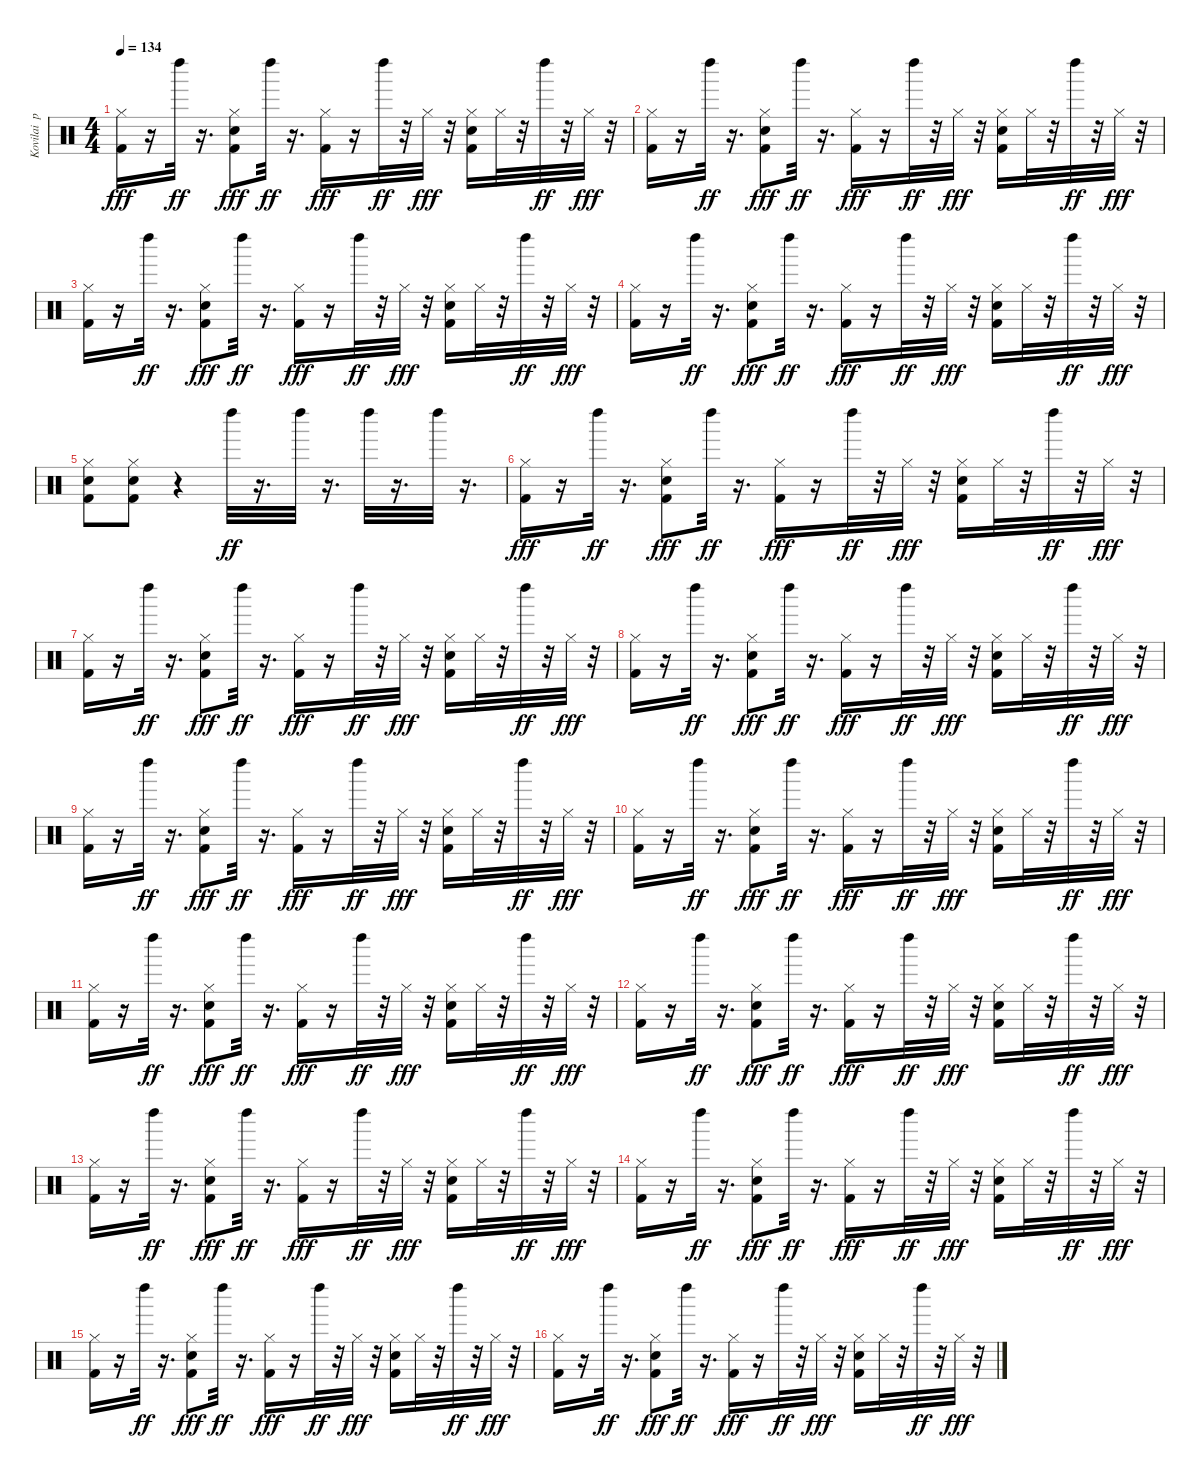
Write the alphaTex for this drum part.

\track ("Kovilai  po tihonechky:" "Kovilai  p") {instrument percussion}
\staff {score}
\articulation defaults
\ts (4 4)
\tempo 134
\clef neutral
\ks c
("Hi-Hat (closed)" "Kick (hit) 2").16{dy fff} r.16 "Left Maraca (hit)".32{dy ff} r.16{d} ("Snare (hit) 2" "Hi-Hat (closed)" "Kick (hit) 2").8{dy fff} "Left Maraca (hit)".32{dy ff} r.16{d} ("Hi-Hat (closed)" "Kick (hit) 2").16{dy fff} r.16 "Left Maraca (hit)".32{dy ff} r.32 "Hi-Hat (closed)".32{dy fff} r.32 ("Hi-Hat (closed)" "Snare (hit) 2" "Kick (hit) 2").16 "Hi-Hat (closed)".32 r.32 "Left Maraca (hit)".32{dy ff} r.32 "Hi-Hat (closed)".32{dy fff} r.32 |
("Hi-Hat (closed)" "Kick (hit) 2").16 r.16 "Left Maraca (hit)".32{dy ff} r.16{d} ("Snare (hit) 2" "Hi-Hat (closed)" "Kick (hit) 2").8{dy fff} "Left Maraca (hit)".32{dy ff} r.16{d} ("Hi-Hat (closed)" "Kick (hit) 2").16{dy fff} r.16 "Left Maraca (hit)".32{dy ff} r.32 "Hi-Hat (closed)".32{dy fff} r.32 ("Hi-Hat (closed)" "Snare (hit) 2" "Kick (hit) 2").16 "Hi-Hat (closed)".32 r.32 "Left Maraca (hit)".32{dy ff} r.32 "Hi-Hat (closed)".32{dy fff} r.32 |
("Hi-Hat (closed)" "Kick (hit) 2").16 r.16 "Left Maraca (hit)".32{dy ff} r.16{d} ("Snare (hit) 2" "Hi-Hat (closed)" "Kick (hit) 2").8{dy fff} "Left Maraca (hit)".32{dy ff} r.16{d} ("Hi-Hat (closed)" "Kick (hit) 2").16{dy fff} r.16 "Left Maraca (hit)".32{dy ff} r.32 "Hi-Hat (closed)".32{dy fff} r.32 ("Hi-Hat (closed)" "Snare (hit) 2" "Kick (hit) 2").16 "Hi-Hat (closed)".32 r.32 "Left Maraca (hit)".32{dy ff} r.32 "Hi-Hat (closed)".32{dy fff} r.32 |
("Hi-Hat (closed)" "Kick (hit) 2").16 r.16 "Left Maraca (hit)".32{dy ff} r.16{d} ("Snare (hit) 2" "Hi-Hat (closed)" "Kick (hit) 2").8{dy fff} "Left Maraca (hit)".32{dy ff} r.16{d} ("Hi-Hat (closed)" "Kick (hit) 2").16{dy fff} r.16 "Left Maraca (hit)".32{dy ff} r.32 "Hi-Hat (closed)".32{dy fff} r.32 ("Hi-Hat (closed)" "Snare (hit) 2" "Kick (hit) 2").16 "Hi-Hat (closed)".32 r.32 "Left Maraca (hit)".32{dy ff} r.32 "Hi-Hat (closed)".32{dy fff} r.32 |
("Snare (hit) 2" "Hi-Hat (closed)" "Kick (hit) 2").8 ("Snare (hit) 2" "Hi-Hat (closed)" "Kick (hit) 2").8 r.4 "Left Maraca (hit)".32{dy ff} r.16{d} "Left Maraca (hit)".32 r.16{d} "Left Maraca (hit)".32 r.16{d} "Left Maraca (hit)".32 r.16{d} |
("Hi-Hat (closed)" "Kick (hit) 2").16{dy fff} r.16 "Left Maraca (hit)".32{dy ff} r.16{d} ("Snare (hit) 2" "Hi-Hat (closed)" "Kick (hit) 2").8{dy fff} "Left Maraca (hit)".32{dy ff} r.16{d} ("Hi-Hat (closed)" "Kick (hit) 2").16{dy fff} r.16 "Left Maraca (hit)".32{dy ff} r.32 "Hi-Hat (closed)".32{dy fff} r.32 ("Hi-Hat (closed)" "Snare (hit) 2" "Kick (hit) 2").16 "Hi-Hat (closed)".32 r.32 "Left Maraca (hit)".32{dy ff} r.32 "Hi-Hat (closed)".32{dy fff} r.32 |
("Hi-Hat (closed)" "Kick (hit) 2").16 r.16 "Left Maraca (hit)".32{dy ff} r.16{d} ("Snare (hit) 2" "Hi-Hat (closed)" "Kick (hit) 2").8{dy fff} "Left Maraca (hit)".32{dy ff} r.16{d} ("Hi-Hat (closed)" "Kick (hit) 2").16{dy fff} r.16 "Left Maraca (hit)".32{dy ff} r.32 "Hi-Hat (closed)".32{dy fff} r.32 ("Hi-Hat (closed)" "Snare (hit) 2" "Kick (hit) 2").16 "Hi-Hat (closed)".32 r.32 "Left Maraca (hit)".32{dy ff} r.32 "Hi-Hat (closed)".32{dy fff} r.32 |
("Hi-Hat (closed)" "Kick (hit) 2").16 r.16 "Left Maraca (hit)".32{dy ff} r.16{d} ("Snare (hit) 2" "Hi-Hat (closed)" "Kick (hit) 2").8{dy fff} "Left Maraca (hit)".32{dy ff} r.16{d} ("Hi-Hat (closed)" "Kick (hit) 2").16{dy fff} r.16 "Left Maraca (hit)".32{dy ff} r.32 "Hi-Hat (closed)".32{dy fff} r.32 ("Hi-Hat (closed)" "Snare (hit) 2" "Kick (hit) 2").16 "Hi-Hat (closed)".32 r.32 "Left Maraca (hit)".32{dy ff} r.32 "Hi-Hat (closed)".32{dy fff} r.32 |
("Hi-Hat (closed)" "Kick (hit) 2").16 r.16 "Left Maraca (hit)".32{dy ff} r.16{d} ("Snare (hit) 2" "Hi-Hat (closed)" "Kick (hit) 2").8{dy fff} "Left Maraca (hit)".32{dy ff} r.16{d} ("Hi-Hat (closed)" "Kick (hit) 2").16{dy fff} r.16 "Left Maraca (hit)".32{dy ff} r.32 "Hi-Hat (closed)".32{dy fff} r.32 ("Hi-Hat (closed)" "Snare (hit) 2" "Kick (hit) 2").16 "Hi-Hat (closed)".32 r.32 "Left Maraca (hit)".32{dy ff} r.32 "Hi-Hat (closed)".32{dy fff} r.32 |
("Hi-Hat (closed)" "Kick (hit) 2").16 r.16 "Left Maraca (hit)".32{dy ff} r.16{d} ("Snare (hit) 2" "Hi-Hat (closed)" "Kick (hit) 2").8{dy fff} "Left Maraca (hit)".32{dy ff} r.16{d} ("Hi-Hat (closed)" "Kick (hit) 2").16{dy fff} r.16 "Left Maraca (hit)".32{dy ff} r.32 "Hi-Hat (closed)".32{dy fff} r.32 ("Hi-Hat (closed)" "Snare (hit) 2" "Kick (hit) 2").16 "Hi-Hat (closed)".32 r.32 "Left Maraca (hit)".32{dy ff} r.32 "Hi-Hat (closed)".32{dy fff} r.32 |
("Hi-Hat (closed)" "Kick (hit) 2").16 r.16 "Left Maraca (hit)".32{dy ff} r.16{d} ("Snare (hit) 2" "Hi-Hat (closed)" "Kick (hit) 2").8{dy fff} "Left Maraca (hit)".32{dy ff} r.16{d} ("Hi-Hat (closed)" "Kick (hit) 2").16{dy fff} r.16 "Left Maraca (hit)".32{dy ff} r.32 "Hi-Hat (closed)".32{dy fff} r.32 ("Hi-Hat (closed)" "Snare (hit) 2" "Kick (hit) 2").16 "Hi-Hat (closed)".32 r.32 "Left Maraca (hit)".32{dy ff} r.32 "Hi-Hat (closed)".32{dy fff} r.32 |
("Hi-Hat (closed)" "Kick (hit) 2").16 r.16 "Left Maraca (hit)".32{dy ff} r.16{d} ("Snare (hit) 2" "Hi-Hat (closed)" "Kick (hit) 2").8{dy fff} "Left Maraca (hit)".32{dy ff} r.16{d} ("Hi-Hat (closed)" "Kick (hit) 2").16{dy fff} r.16 "Left Maraca (hit)".32{dy ff} r.32 "Hi-Hat (closed)".32{dy fff} r.32 ("Hi-Hat (closed)" "Snare (hit) 2" "Kick (hit) 2").16 "Hi-Hat (closed)".32 r.32 "Left Maraca (hit)".32{dy ff} r.32 "Hi-Hat (closed)".32{dy fff} r.32 |
("Hi-Hat (closed)" "Kick (hit) 2").16 r.16 "Left Maraca (hit)".32{dy ff} r.16{d} ("Snare (hit) 2" "Hi-Hat (closed)" "Kick (hit) 2").8{dy fff} "Left Maraca (hit)".32{dy ff} r.16{d} ("Hi-Hat (closed)" "Kick (hit) 2").16{dy fff} r.16 "Left Maraca (hit)".32{dy ff} r.32 "Hi-Hat (closed)".32{dy fff} r.32 ("Hi-Hat (closed)" "Snare (hit) 2" "Kick (hit) 2").16 "Hi-Hat (closed)".32 r.32 "Left Maraca (hit)".32{dy ff} r.32 "Hi-Hat (closed)".32{dy fff} r.32 |
("Hi-Hat (closed)" "Kick (hit) 2").16 r.16 "Left Maraca (hit)".32{dy ff} r.16{d} ("Snare (hit) 2" "Hi-Hat (closed)" "Kick (hit) 2").8{dy fff} "Left Maraca (hit)".32{dy ff} r.16{d} ("Hi-Hat (closed)" "Kick (hit) 2").16{dy fff} r.16 "Left Maraca (hit)".32{dy ff} r.32 "Hi-Hat (closed)".32{dy fff} r.32 ("Hi-Hat (closed)" "Snare (hit) 2" "Kick (hit) 2").16 "Hi-Hat (closed)".32 r.32 "Left Maraca (hit)".32{dy ff} r.32 "Hi-Hat (closed)".32{dy fff} r.32 |
("Hi-Hat (closed)" "Kick (hit) 2").16 r.16 "Left Maraca (hit)".32{dy ff} r.16{d} ("Snare (hit) 2" "Hi-Hat (closed)" "Kick (hit) 2").8{dy fff} "Left Maraca (hit)".32{dy ff} r.16{d} ("Hi-Hat (closed)" "Kick (hit) 2").16{dy fff} r.16 "Left Maraca (hit)".32{dy ff} r.32 "Hi-Hat (closed)".32{dy fff} r.32 ("Hi-Hat (closed)" "Snare (hit) 2" "Kick (hit) 2").16 "Hi-Hat (closed)".32 r.32 "Left Maraca (hit)".32{dy ff} r.32 "Hi-Hat (closed)".32{dy fff} r.32 |
("Hi-Hat (closed)" "Kick (hit) 2").16 r.16 "Left Maraca (hit)".32{dy ff} r.16{d} ("Snare (hit) 2" "Hi-Hat (closed)" "Kick (hit) 2").8{dy fff} "Left Maraca (hit)".32{dy ff} r.16{d} ("Hi-Hat (closed)" "Kick (hit) 2").16{dy fff} r.16 "Left Maraca (hit)".32{dy ff} r.32 "Hi-Hat (closed)".32{dy fff} r.32 ("Hi-Hat (closed)" "Snare (hit) 2" "Kick (hit) 2").16 "Hi-Hat (closed)".32 r.32 "Left Maraca (hit)".32{dy ff} r.32 "Hi-Hat (closed)".32{dy fff} r.32
